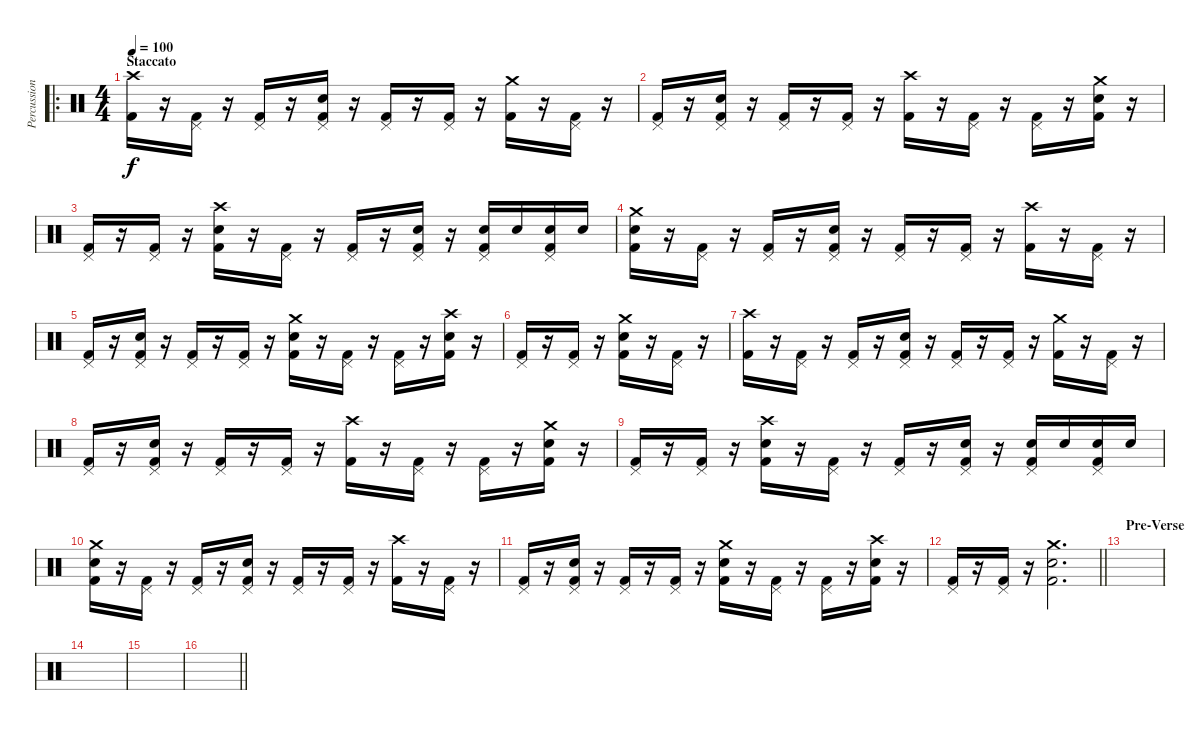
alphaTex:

\track ("Percussion" "Percussion") {instrument percussion}
\staff {score}
\articulation defaults
\ro
\ts (4 4)
\section ("" "Staccato")
\tempo 100
\clef neutral
\ks c
("Crash high (hit)" "Kick (hit) 2").16{dy f} r.16 ("Pedal Hi-Hat (hit)" "Kick (hit) 2").16 r.16 ("Pedal Hi-Hat (hit)" "Kick (hit) 2").16 r.16 ("Pedal Hi-Hat (hit)" "Snare (hit) 2" "Kick (hit) 2").16 r.16 ("Pedal Hi-Hat (hit)" "Kick (hit) 2").16 r.16 ("Pedal Hi-Hat (hit)" "Kick (hit) 2").16 r.16 ("Crash medium (hit)" "Kick (hit) 2").16 r.16 ("Pedal Hi-Hat (hit)" "Kick (hit) 2").16 r.16 |
("Pedal Hi-Hat (hit)" "Kick (hit) 2").16 r.16 ("Pedal Hi-Hat (hit)" "Snare (hit) 2" "Kick (hit) 2").16 r.16 ("Pedal Hi-Hat (hit)" "Kick (hit) 2").16 r.16 ("Pedal Hi-Hat (hit)" "Kick (hit) 2").16 r.16 ("Crash high (hit)" "Kick (hit) 2").16 r.16 ("Pedal Hi-Hat (hit)" "Kick (hit) 2").16 r.16 ("Pedal Hi-Hat (hit)" "Kick (hit) 2").16 r.16 ("Crash medium (hit)" "Snare (hit) 2" "Kick (hit) 2").16 r.16 |
("Pedal Hi-Hat (hit)" "Kick (hit) 2").16 r.16 ("Pedal Hi-Hat (hit)" "Kick (hit) 2").16 r.16 ("Crash high (hit)" "Snare (hit) 2" "Kick (hit) 2").16 r.16 ("Pedal Hi-Hat (hit)" "Kick (hit) 2").16 r.16 ("Pedal Hi-Hat (hit)" "Kick (hit) 2").16 r.16 ("Pedal Hi-Hat (hit)" "Snare (hit) 2" "Kick (hit) 2").16 r.16 ("Pedal Hi-Hat (hit)" "Snare (hit) 2" "Kick (hit) 2").16 "Snare (hit) 2".16 ("Pedal Hi-Hat (hit)" "Snare (hit) 2" "Kick (hit) 2").16 "Snare (hit) 2".16 |
("Crash medium (hit)" "Snare (hit) 2" "Kick (hit) 2").16 r.16 ("Pedal Hi-Hat (hit)" "Kick (hit) 2").16 r.16 ("Pedal Hi-Hat (hit)" "Kick (hit) 2").16 r.16 ("Pedal Hi-Hat (hit)" "Snare (hit) 2" "Kick (hit) 2").16 r.16 ("Pedal Hi-Hat (hit)" "Kick (hit) 2").16 r.16 ("Pedal Hi-Hat (hit)" "Kick (hit) 2").16 r.16 ("Crash high (hit)" "Kick (hit) 2").16 r.16 ("Pedal Hi-Hat (hit)" "Kick (hit) 2").16 r.16 |
("Pedal Hi-Hat (hit)" "Kick (hit) 2").16 r.16 ("Pedal Hi-Hat (hit)" "Snare (hit) 2" "Kick (hit) 2").16 r.16 ("Pedal Hi-Hat (hit)" "Kick (hit) 2").16 r.16 ("Pedal Hi-Hat (hit)" "Kick (hit) 2").16 r.16 ("Crash medium (hit)" "Snare (hit) 2" "Kick (hit) 2").16 r.16 ("Pedal Hi-Hat (hit)" "Kick (hit) 2").16 r.16 ("Pedal Hi-Hat (hit)" "Kick (hit) 2").16 r.16 ("Crash high (hit)" "Snare (hit) 2" "Kick (hit) 2").16 r.16 |
("Pedal Hi-Hat (hit)" "Kick (hit) 2").16 r.16 ("Pedal Hi-Hat (hit)" "Kick (hit) 2").16 r.16 ("Crash medium (hit)" "Snare (hit) 2" "Kick (hit) 2").16 r.16 ("Pedal Hi-Hat (hit)" "Kick (hit) 2").16 r.16 |
("Crash high (hit)" "Kick (hit) 2").16 r.16 ("Pedal Hi-Hat (hit)" "Kick (hit) 2").16 r.16 ("Pedal Hi-Hat (hit)" "Kick (hit) 2").16 r.16 ("Pedal Hi-Hat (hit)" "Snare (hit) 2" "Kick (hit) 2").16 r.16 ("Pedal Hi-Hat (hit)" "Kick (hit) 2").16 r.16 ("Pedal Hi-Hat (hit)" "Kick (hit) 2").16 r.16 ("Crash medium (hit)" "Kick (hit) 2").16 r.16 ("Pedal Hi-Hat (hit)" "Kick (hit) 2").16 r.16 |
("Pedal Hi-Hat (hit)" "Kick (hit) 2").16 r.16 ("Pedal Hi-Hat (hit)" "Snare (hit) 2" "Kick (hit) 2").16 r.16 ("Pedal Hi-Hat (hit)" "Kick (hit) 2").16 r.16 ("Pedal Hi-Hat (hit)" "Kick (hit) 2").16 r.16 ("Crash high (hit)" "Kick (hit) 2").16 r.16 ("Pedal Hi-Hat (hit)" "Kick (hit) 2").16 r.16 ("Pedal Hi-Hat (hit)" "Kick (hit) 2").16 r.16 ("Crash medium (hit)" "Snare (hit) 2" "Kick (hit) 2").16 r.16 |
("Pedal Hi-Hat (hit)" "Kick (hit) 2").16 r.16 ("Pedal Hi-Hat (hit)" "Kick (hit) 2").16 r.16 ("Crash high (hit)" "Snare (hit) 2" "Kick (hit) 2").16 r.16 ("Pedal Hi-Hat (hit)" "Kick (hit) 2").16 r.16 ("Pedal Hi-Hat (hit)" "Kick (hit) 2").16 r.16 ("Pedal Hi-Hat (hit)" "Snare (hit) 2" "Kick (hit) 2").16 r.16 ("Pedal Hi-Hat (hit)" "Snare (hit) 2" "Kick (hit) 2").16 "Snare (hit) 2".16 ("Pedal Hi-Hat (hit)" "Snare (hit) 2" "Kick (hit) 2").16 "Snare (hit) 2".16 |
("Crash medium (hit)" "Snare (hit) 2" "Kick (hit) 2").16 r.16 ("Pedal Hi-Hat (hit)" "Kick (hit) 2").16 r.16 ("Pedal Hi-Hat (hit)" "Kick (hit) 2").16 r.16 ("Pedal Hi-Hat (hit)" "Snare (hit) 2" "Kick (hit) 2").16 r.16 ("Pedal Hi-Hat (hit)" "Kick (hit) 2").16 r.16 ("Pedal Hi-Hat (hit)" "Kick (hit) 2").16 r.16 ("Crash high (hit)" "Kick (hit) 2").16 r.16 ("Pedal Hi-Hat (hit)" "Kick (hit) 2").16 r.16 |
("Pedal Hi-Hat (hit)" "Kick (hit) 2").16 r.16 ("Pedal Hi-Hat (hit)" "Snare (hit) 2" "Kick (hit) 2").16 r.16 ("Pedal Hi-Hat (hit)" "Kick (hit) 2").16 r.16 ("Pedal Hi-Hat (hit)" "Kick (hit) 2").16 r.16 ("Crash medium (hit)" "Snare (hit) 2" "Kick (hit) 2").16 r.16 ("Pedal Hi-Hat (hit)" "Kick (hit) 2").16 r.16 ("Pedal Hi-Hat (hit)" "Kick (hit) 2").16 r.16 ("Crash high (hit)" "Snare (hit) 2" "Kick (hit) 2").16 r.16 |
\barLineRight lightlight
("Pedal Hi-Hat (hit)" "Kick (hit) 2").16 r.16 ("Pedal Hi-Hat (hit)" "Kick (hit) 2").16 r.16 ("Crash medium (hit)" "Snare (hit) 2" "Kick (hit) 2").2{d} |
\section ("" "Pre-Verse")
|
|
|
\barLineRight lightlight
